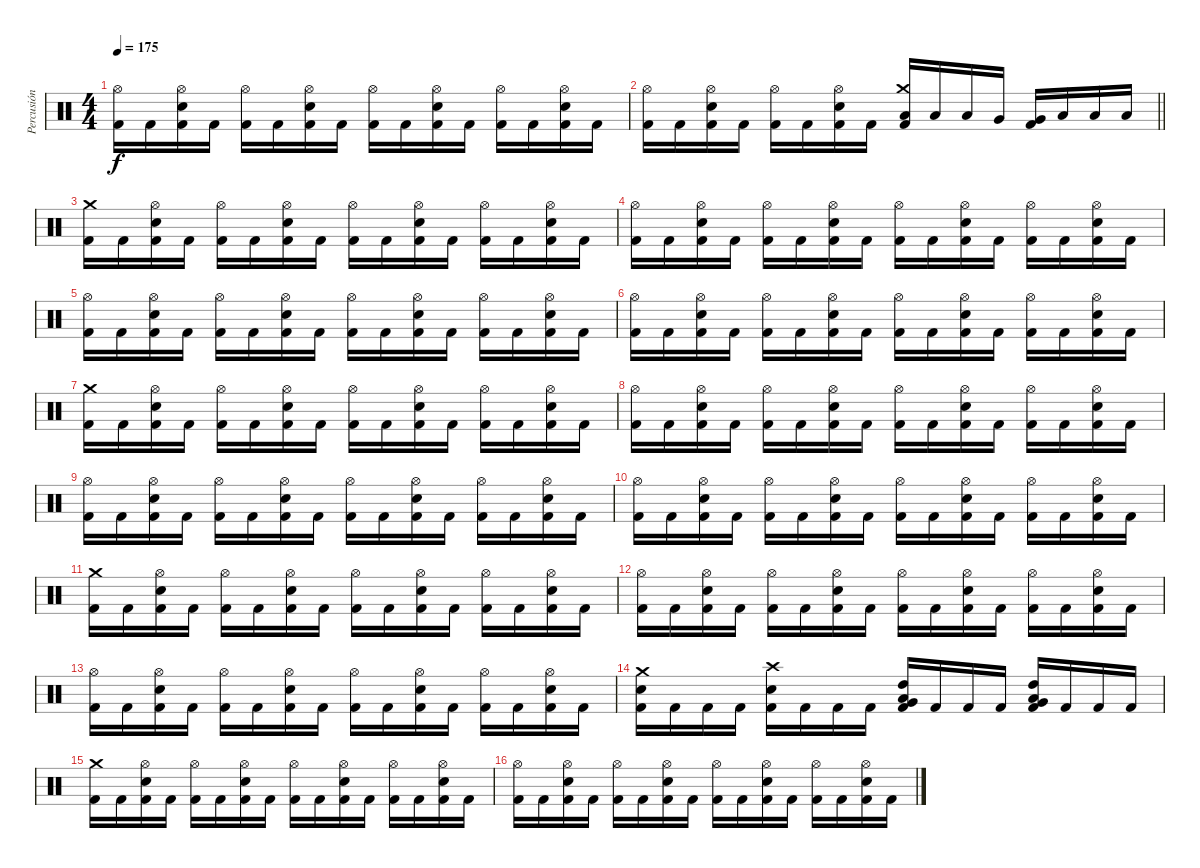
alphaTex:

\track ("Percusión" "Percusión") {instrument percussion}
\staff {score}
\articulation defaults
\ts (4 4)
\tempo 175
\clef neutral
\ks c
("Hi-Hat (open)" "Kick (hit) 2").16{dy f} "Kick (hit) 2".16 ("Hi-Hat (open)" "Electric Snare (hit)" "Kick (hit) 2").16 "Kick (hit) 2".16 ("Hi-Hat (open)" "Kick (hit) 2").16 "Kick (hit) 2".16 ("Hi-Hat (open)" "Electric Snare (hit)" "Kick (hit) 2").16 "Kick (hit) 2".16 ("Hi-Hat (open)" "Kick (hit) 2").16 "Kick (hit) 2".16 ("Hi-Hat (open)" "Electric Snare (hit)" "Kick (hit) 2").16 "Kick (hit) 2".16 ("Hi-Hat (open)" "Kick (hit) 2").16 "Kick (hit) 2".16 ("Hi-Hat (open)" "Electric Snare (hit)" "Kick (hit) 2").16 "Kick (hit) 2".16 |
\barLineRight lightlight
("Hi-Hat (open)" "Kick (hit) 2").16 "Kick (hit) 2".16 ("Hi-Hat (open)" "Electric Snare (hit)" "Kick (hit) 2").16 "Kick (hit) 2".16 ("Hi-Hat (open)" "Kick (hit) 2").16 "Kick (hit) 2".16 ("Hi-Hat (open)" "Electric Snare (hit)" "Kick (hit) 2").16 "Kick (hit) 2".16 ("Crash medium (hit)" "Low Tom (hit)" "Kick (hit) 2").16 "Low Tom (hit)".16 "Low Tom (hit)".16 "Very Low Tom (hit)".16 ("Very Low Tom (hit)" "Kick (hit) 2").16 "Low Floor Tom (hit)".16 "Low Floor Tom (hit)".16 "Low Floor Tom (hit)".16 |
("Crash medium (hit)" "Kick (hit) 2").16 "Kick (hit) 2".16 ("Hi-Hat (open)" "Electric Snare (hit)" "Kick (hit) 2").16 "Kick (hit) 2".16 ("Hi-Hat (open)" "Kick (hit) 2").16 "Kick (hit) 2".16 ("Hi-Hat (open)" "Electric Snare (hit)" "Kick (hit) 2").16 "Kick (hit) 2".16 ("Hi-Hat (open)" "Kick (hit) 2").16 "Kick (hit) 2".16 ("Hi-Hat (open)" "Electric Snare (hit)" "Kick (hit) 2").16 "Kick (hit) 2".16 ("Hi-Hat (open)" "Kick (hit) 2").16 "Kick (hit) 2".16 ("Hi-Hat (open)" "Electric Snare (hit)" "Kick (hit) 2").16 "Kick (hit) 2".16 |
("Hi-Hat (open)" "Kick (hit) 2").16 "Kick (hit) 2".16 ("Hi-Hat (open)" "Electric Snare (hit)" "Kick (hit) 2").16 "Kick (hit) 2".16 ("Hi-Hat (open)" "Kick (hit) 2").16 "Kick (hit) 2".16 ("Hi-Hat (open)" "Electric Snare (hit)" "Kick (hit) 2").16 "Kick (hit) 2".16 ("Hi-Hat (open)" "Kick (hit) 2").16 "Kick (hit) 2".16 ("Hi-Hat (open)" "Electric Snare (hit)" "Kick (hit) 2").16 "Kick (hit) 2".16 ("Hi-Hat (open)" "Kick (hit) 2").16 "Kick (hit) 2".16 ("Hi-Hat (open)" "Electric Snare (hit)" "Kick (hit) 2").16 "Kick (hit) 2".16 |
("Hi-Hat (open)" "Kick (hit) 2").16 "Kick (hit) 2".16 ("Hi-Hat (open)" "Electric Snare (hit)" "Kick (hit) 2").16 "Kick (hit) 2".16 ("Hi-Hat (open)" "Kick (hit) 2").16 "Kick (hit) 2".16 ("Hi-Hat (open)" "Electric Snare (hit)" "Kick (hit) 2").16 "Kick (hit) 2".16 ("Hi-Hat (open)" "Kick (hit) 2").16 "Kick (hit) 2".16 ("Hi-Hat (open)" "Electric Snare (hit)" "Kick (hit) 2").16 "Kick (hit) 2".16 ("Hi-Hat (open)" "Kick (hit) 2").16 "Kick (hit) 2".16 ("Hi-Hat (open)" "Electric Snare (hit)" "Kick (hit) 2").16 "Kick (hit) 2".16 |
("Hi-Hat (open)" "Kick (hit) 2").16 "Kick (hit) 2".16 ("Hi-Hat (open)" "Electric Snare (hit)" "Kick (hit) 2").16 "Kick (hit) 2".16 ("Hi-Hat (open)" "Kick (hit) 2").16 "Kick (hit) 2".16 ("Hi-Hat (open)" "Electric Snare (hit)" "Kick (hit) 2").16 "Kick (hit) 2".16 ("Hi-Hat (open)" "Kick (hit) 2").16 "Kick (hit) 2".16 ("Hi-Hat (open)" "Electric Snare (hit)" "Kick (hit) 2").16 "Kick (hit) 2".16 ("Hi-Hat (open)" "Kick (hit) 2").16 "Kick (hit) 2".16 ("Hi-Hat (open)" "Electric Snare (hit)" "Kick (hit) 2").16 "Kick (hit) 2".16 |
("Crash medium (hit)" "Kick (hit) 2").16 "Kick (hit) 2".16 ("Hi-Hat (open)" "Electric Snare (hit)" "Kick (hit) 2").16 "Kick (hit) 2".16 ("Hi-Hat (open)" "Kick (hit) 2").16 "Kick (hit) 2".16 ("Hi-Hat (open)" "Electric Snare (hit)" "Kick (hit) 2").16 "Kick (hit) 2".16 ("Hi-Hat (open)" "Kick (hit) 2").16 "Kick (hit) 2".16 ("Hi-Hat (open)" "Electric Snare (hit)" "Kick (hit) 2").16 "Kick (hit) 2".16 ("Hi-Hat (open)" "Kick (hit) 2").16 "Kick (hit) 2".16 ("Hi-Hat (open)" "Electric Snare (hit)" "Kick (hit) 2").16 "Kick (hit) 2".16 |
("Hi-Hat (open)" "Kick (hit) 2").16 "Kick (hit) 2".16 ("Hi-Hat (open)" "Electric Snare (hit)" "Kick (hit) 2").16 "Kick (hit) 2".16 ("Hi-Hat (open)" "Kick (hit) 2").16 "Kick (hit) 2".16 ("Hi-Hat (open)" "Electric Snare (hit)" "Kick (hit) 2").16 "Kick (hit) 2".16 ("Hi-Hat (open)" "Kick (hit) 2").16 "Kick (hit) 2".16 ("Hi-Hat (open)" "Electric Snare (hit)" "Kick (hit) 2").16 "Kick (hit) 2".16 ("Hi-Hat (open)" "Kick (hit) 2").16 "Kick (hit) 2".16 ("Hi-Hat (open)" "Electric Snare (hit)" "Kick (hit) 2").16 "Kick (hit) 2".16 |
("Hi-Hat (open)" "Kick (hit) 2").16 "Kick (hit) 2".16 ("Hi-Hat (open)" "Electric Snare (hit)" "Kick (hit) 2").16 "Kick (hit) 2".16 ("Hi-Hat (open)" "Kick (hit) 2").16 "Kick (hit) 2".16 ("Hi-Hat (open)" "Electric Snare (hit)" "Kick (hit) 2").16 "Kick (hit) 2".16 ("Hi-Hat (open)" "Kick (hit) 2").16 "Kick (hit) 2".16 ("Hi-Hat (open)" "Electric Snare (hit)" "Kick (hit) 2").16 "Kick (hit) 2".16 ("Hi-Hat (open)" "Kick (hit) 2").16 "Kick (hit) 2".16 ("Hi-Hat (open)" "Electric Snare (hit)" "Kick (hit) 2").16 "Kick (hit) 2".16 |
("Hi-Hat (open)" "Kick (hit) 2").16 "Kick (hit) 2".16 ("Hi-Hat (open)" "Electric Snare (hit)" "Kick (hit) 2").16 "Kick (hit) 2".16 ("Hi-Hat (open)" "Kick (hit) 2").16 "Kick (hit) 2".16 ("Hi-Hat (open)" "Electric Snare (hit)" "Kick (hit) 2").16 "Kick (hit) 2".16 ("Hi-Hat (open)" "Kick (hit) 2").16 "Kick (hit) 2".16 ("Hi-Hat (open)" "Electric Snare (hit)" "Kick (hit) 2").16 "Kick (hit) 2".16 ("Hi-Hat (open)" "Kick (hit) 2").16 "Kick (hit) 2".16 ("Hi-Hat (open)" "Electric Snare (hit)" "Kick (hit) 2").16 "Kick (hit) 2".16 |
("Crash medium (hit)" "Kick (hit) 2").16 "Kick (hit) 2".16 ("Hi-Hat (open)" "Electric Snare (hit)" "Kick (hit) 2").16 "Kick (hit) 2".16 ("Hi-Hat (open)" "Kick (hit) 2").16 "Kick (hit) 2".16 ("Hi-Hat (open)" "Electric Snare (hit)" "Kick (hit) 2").16 "Kick (hit) 2".16 ("Hi-Hat (open)" "Kick (hit) 2").16 "Kick (hit) 2".16 ("Hi-Hat (open)" "Electric Snare (hit)" "Kick (hit) 2").16 "Kick (hit) 2".16 ("Hi-Hat (open)" "Kick (hit) 2").16 "Kick (hit) 2".16 ("Hi-Hat (open)" "Electric Snare (hit)" "Kick (hit) 2").16 "Kick (hit) 2".16 |
("Hi-Hat (open)" "Kick (hit) 2").16 "Kick (hit) 2".16 ("Hi-Hat (open)" "Electric Snare (hit)" "Kick (hit) 2").16 "Kick (hit) 2".16 ("Hi-Hat (open)" "Kick (hit) 2").16 "Kick (hit) 2".16 ("Hi-Hat (open)" "Electric Snare (hit)" "Kick (hit) 2").16 "Kick (hit) 2".16 ("Hi-Hat (open)" "Kick (hit) 2").16 "Kick (hit) 2".16 ("Hi-Hat (open)" "Electric Snare (hit)" "Kick (hit) 2").16 "Kick (hit) 2".16 ("Hi-Hat (open)" "Kick (hit) 2").16 "Kick (hit) 2".16 ("Hi-Hat (open)" "Electric Snare (hit)" "Kick (hit) 2").16 "Kick (hit) 2".16 |
("Hi-Hat (open)" "Kick (hit) 2").16 "Kick (hit) 2".16 ("Hi-Hat (open)" "Electric Snare (hit)" "Kick (hit) 2").16 "Kick (hit) 2".16 ("Hi-Hat (open)" "Kick (hit) 2").16 "Kick (hit) 2".16 ("Hi-Hat (open)" "Electric Snare (hit)" "Kick (hit) 2").16 "Kick (hit) 2".16 ("Hi-Hat (open)" "Kick (hit) 2").16 "Kick (hit) 2".16 ("Hi-Hat (open)" "Electric Snare (hit)" "Kick (hit) 2").16 "Kick (hit) 2".16 ("Hi-Hat (open)" "Kick (hit) 2").16 "Kick (hit) 2".16 ("Hi-Hat (open)" "Electric Snare (hit)" "Kick (hit) 2").16 "Kick (hit) 2".16 |
("Crash medium (hit)" "Electric Snare (hit)" "Kick (hit) 2").16 "Kick (hit) 2".16 "Kick (hit) 2".16 "Kick (hit) 2".16 ("Crash high (hit)" "Electric Snare (hit)" "Kick (hit) 2").16 "Kick (hit) 2".16 "Kick (hit) 2".16 "Kick (hit) 2".16 ("High Tom (hit)" "Very Low Tom (hit)" "Low Tom (hit)" "Kick (hit) 2").16 "Kick (hit) 2".16 "Kick (hit) 2".16 "Kick (hit) 2".16 ("High Tom (hit)" "Very Low Tom (hit)" "Low Floor Tom (hit)" "Kick (hit) 2").16 "Kick (hit) 2".16 "Kick (hit) 2".16 "Kick (hit) 2".16 |
("Crash medium (hit)" "Kick (hit) 2").16 "Kick (hit) 2".16 ("Hi-Hat (open)" "Electric Snare (hit)" "Kick (hit) 2").16 "Kick (hit) 2".16 ("Hi-Hat (open)" "Kick (hit) 2").16 "Kick (hit) 2".16 ("Hi-Hat (open)" "Electric Snare (hit)" "Kick (hit) 2").16 "Kick (hit) 2".16 ("Hi-Hat (open)" "Kick (hit) 2").16 "Kick (hit) 2".16 ("Hi-Hat (open)" "Electric Snare (hit)" "Kick (hit) 2").16 "Kick (hit) 2".16 ("Hi-Hat (open)" "Kick (hit) 2").16 "Kick (hit) 2".16 ("Hi-Hat (open)" "Electric Snare (hit)" "Kick (hit) 2").16 "Kick (hit) 2".16 |
("Hi-Hat (open)" "Kick (hit) 2").16 "Kick (hit) 2".16 ("Hi-Hat (open)" "Electric Snare (hit)" "Kick (hit) 2").16 "Kick (hit) 2".16 ("Hi-Hat (open)" "Kick (hit) 2").16 "Kick (hit) 2".16 ("Hi-Hat (open)" "Electric Snare (hit)" "Kick (hit) 2").16 "Kick (hit) 2".16 ("Hi-Hat (open)" "Kick (hit) 2").16 "Kick (hit) 2".16 ("Hi-Hat (open)" "Electric Snare (hit)" "Kick (hit) 2").16 "Kick (hit) 2".16 ("Hi-Hat (open)" "Kick (hit) 2").16 "Kick (hit) 2".16 ("Hi-Hat (open)" "Electric Snare (hit)" "Kick (hit) 2").16 "Kick (hit) 2".16
